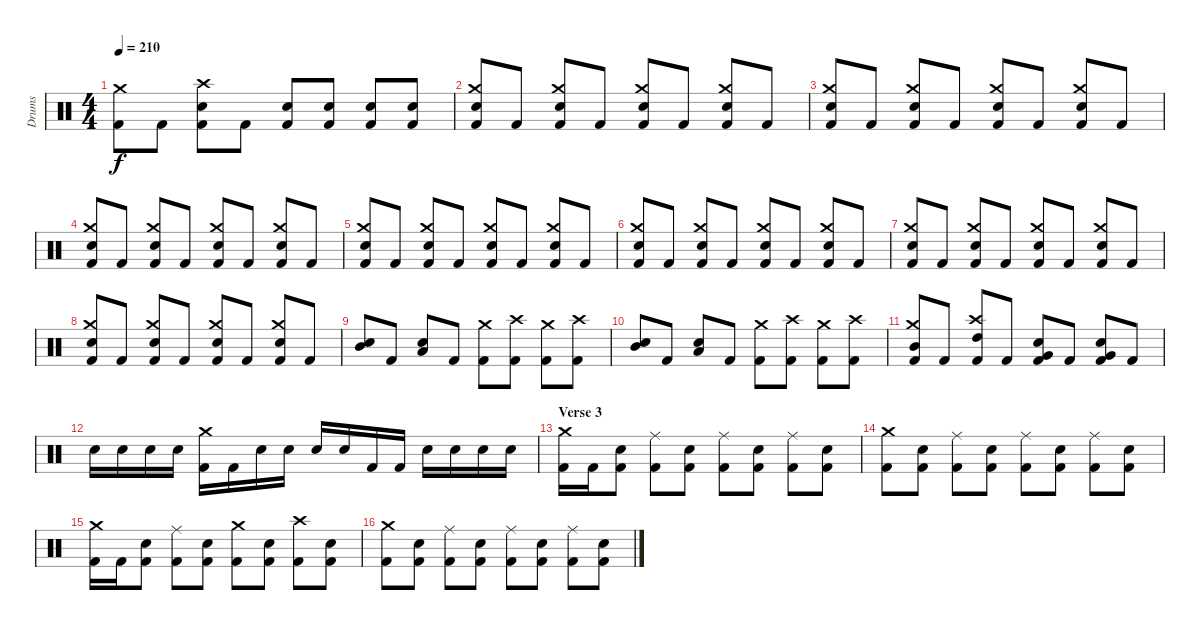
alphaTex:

\track ("Drums" "Drums") {instrument percussion}
\staff {score}
\articulation defaults
\ts (4 4)
\tempo 210
\clef neutral
\ks c
("Kick (hit) 2" "Crash medium (hit)").8{dy f} "Kick (hit) 2".8 ("Kick (hit) 2" "Snare (hit) 2" "Crash high (hit)").8 "Kick (hit) 2".8 ("Kick (hit) 2" "Snare (hit) 2").8 ("Kick (hit) 2" "Snare (hit) 2").8 ("Kick (hit) 2" "Snare (hit) 2").8 ("Kick (hit) 2" "Snare (hit) 2").8 |
("Kick (hit) 2" "Snare (hit) 2" "Crash medium (hit)").8 "Kick (hit) 2".8 ("Kick (hit) 2" "Snare (hit) 2" "Crash medium (hit)").8 "Kick (hit) 2".8 ("Kick (hit) 2" "Snare (hit) 2" "Crash medium (hit)").8 "Kick (hit) 2".8 ("Kick (hit) 2" "Snare (hit) 2" "Crash medium (hit)").8 "Kick (hit) 2".8 |
("Kick (hit) 2" "Snare (hit) 2" "Crash medium (hit)").8 "Kick (hit) 2".8 ("Kick (hit) 2" "Snare (hit) 2" "Crash medium (hit)").8 "Kick (hit) 2".8 ("Kick (hit) 2" "Snare (hit) 2" "Crash medium (hit)").8 "Kick (hit) 2".8 ("Kick (hit) 2" "Snare (hit) 2" "Crash medium (hit)").8 "Kick (hit) 2".8 |
("Kick (hit) 2" "Snare (hit) 2" "Crash medium (hit)").8 "Kick (hit) 2".8 ("Kick (hit) 2" "Snare (hit) 2" "Crash medium (hit)").8 "Kick (hit) 2".8 ("Kick (hit) 2" "Snare (hit) 2" "Crash medium (hit)").8 "Kick (hit) 2".8 ("Kick (hit) 2" "Snare (hit) 2" "Crash medium (hit)").8 "Kick (hit) 2".8 |
("Kick (hit) 2" "Snare (hit) 2" "Crash medium (hit)").8 "Kick (hit) 2".8 ("Kick (hit) 2" "Snare (hit) 2" "Crash medium (hit)").8 "Kick (hit) 2".8 ("Kick (hit) 2" "Snare (hit) 2" "Crash medium (hit)").8 "Kick (hit) 2".8 ("Kick (hit) 2" "Snare (hit) 2" "Crash medium (hit)").8 "Kick (hit) 2".8 |
("Kick (hit) 2" "Snare (hit) 2" "Crash medium (hit)").8 "Kick (hit) 2".8 ("Kick (hit) 2" "Snare (hit) 2" "Crash medium (hit)").8 "Kick (hit) 2".8 ("Kick (hit) 2" "Snare (hit) 2" "Crash medium (hit)").8 "Kick (hit) 2".8 ("Kick (hit) 2" "Snare (hit) 2" "Crash medium (hit)").8 "Kick (hit) 2".8 |
("Kick (hit) 2" "Snare (hit) 2" "Crash medium (hit)").8 "Kick (hit) 2".8 ("Kick (hit) 2" "Snare (hit) 2" "Crash medium (hit)").8 "Kick (hit) 2".8 ("Kick (hit) 2" "Snare (hit) 2" "Crash medium (hit)").8 "Kick (hit) 2".8 ("Kick (hit) 2" "Snare (hit) 2" "Crash medium (hit)").8 "Kick (hit) 2".8 |
("Kick (hit) 2" "Snare (hit) 2" "Crash medium (hit)").8 "Kick (hit) 2".8 ("Kick (hit) 2" "Snare (hit) 2" "Crash medium (hit)").8 "Kick (hit) 2".8 ("Kick (hit) 2" "Snare (hit) 2" "Crash medium (hit)").8 "Kick (hit) 2".8 ("Kick (hit) 2" "Snare (hit) 2" "Crash medium (hit)").8 "Kick (hit) 2".8 |
("Snare (hit) 2" "Mid Tom (hit)").8 "Kick (hit) 2".8 ("Snare (hit) 2" "Low Tom (hit)").8 "Kick (hit) 2".8 ("Kick (hit) 2" "Crash medium (hit)").8 ("Kick (hit) 2" "Crash high (hit)").8 ("Kick (hit) 2" "Crash medium (hit)").8 ("Kick (hit) 2" "Crash high (hit)").8 |
("Snare (hit) 2" "Mid Tom (hit)").8 "Kick (hit) 2".8 ("Snare (hit) 2" "Low Tom (hit)").8 "Kick (hit) 2".8 ("Kick (hit) 2" "Crash medium (hit)").8 ("Kick (hit) 2" "Crash high (hit)").8 ("Kick (hit) 2" "Crash medium (hit)").8 ("Kick (hit) 2" "Crash high (hit)").8 |
("Kick (hit) 2" "Mid Tom (hit)" "Crash medium (hit)").8 "Kick (hit) 2".8 ("Kick (hit) 2" "High Tom (hit)" "Crash high (hit)").8 "Kick (hit) 2".8 ("Kick (hit) 2" "Snare (hit) 2" "Very Low Tom (hit)").8 "Kick (hit) 2".8 ("Kick (hit) 2" "Snare (hit) 2" "Very Low Tom (hit)").8 "Kick (hit) 2".8 |
"Snare (hit) 2".16 "Snare (hit) 2".16 "Snare (hit) 2".16 "Snare (hit) 2".16 ("Kick (hit) 2" "Crash medium (hit)").16 "Kick (hit) 2".16 "Snare (hit) 2".16 "Snare (hit) 2".16 "Snare (hit) 2".16 "Snare (hit) 2".16 "Kick (hit) 2".16 "Kick (hit) 2".16 "Snare (hit) 2".16 "Snare (hit) 2".16 "Snare (hit) 2".16 "Snare (hit) 2".16 |
\section ("" "Verse 3")
("Kick (hit) 2" "Crash medium (hit)").16 "Kick (hit) 2".16 ("Kick (hit) 2" "Snare (hit) 2").8 ("Kick (hit) 2" "Ride (middle)").8 ("Kick (hit) 2" "Snare (hit) 2").8 ("Kick (hit) 2" "Ride (middle)").8 ("Kick (hit) 2" "Snare (hit) 2").8 ("Kick (hit) 2" "Ride (middle)").8 ("Kick (hit) 2" "Snare (hit) 2").8 |
("Kick (hit) 2" "Crash medium (hit)").8 ("Kick (hit) 2" "Snare (hit) 2").8 ("Kick (hit) 2" "Ride (middle)").8 ("Kick (hit) 2" "Snare (hit) 2").8 ("Kick (hit) 2" "Ride (middle)").8 ("Kick (hit) 2" "Snare (hit) 2").8 ("Kick (hit) 2" "Ride (middle)").8 ("Kick (hit) 2" "Snare (hit) 2").8 |
("Kick (hit) 2" "Crash medium (hit)").16 "Kick (hit) 2".16 ("Kick (hit) 2" "Snare (hit) 2").8 ("Kick (hit) 2" "Ride (middle)").8 ("Kick (hit) 2" "Snare (hit) 2").8 ("Kick (hit) 2" "Crash medium (hit)").8 ("Kick (hit) 2" "Snare (hit) 2").8 ("Kick (hit) 2" "Crash high (hit)").8 ("Kick (hit) 2" "Snare (hit) 2").8 |
("Kick (hit) 2" "Crash medium (hit)").8 ("Kick (hit) 2" "Snare (hit) 2").8 ("Kick (hit) 2" "Ride (middle)").8 ("Kick (hit) 2" "Snare (hit) 2").8 ("Kick (hit) 2" "Ride (middle)").8 ("Kick (hit) 2" "Snare (hit) 2").8 ("Kick (hit) 2" "Ride (middle)").8 ("Kick (hit) 2" "Snare (hit) 2").8
